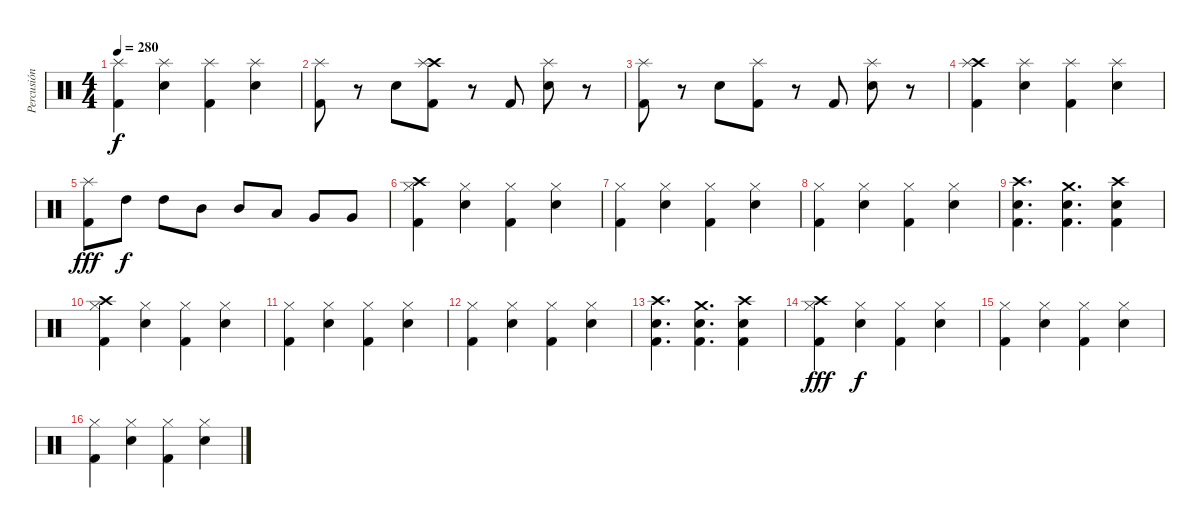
\track ("Percusión" "Percusión") {instrument percussion}
\staff {score}
\articulation defaults
\ts (4 4)
\tempo 280
\clef neutral
\ks c
("Splash (hit)" "Kick (hit) 2").4{dy f} ("Snare (hit) 2" "Splash (hit)").4 ("Splash (hit)" "Kick (hit) 2").4 ("Snare (hit) 2" "Splash (hit)").4 |
("Splash (hit)" "Kick (hit) 2").8 r.8 "Snare (hit) 2".8 ("Crash high (hit)" "Splash (hit)" "Kick (hit) 2").8 r.8 "Kick (hit) 2".8 ("Snare (hit) 2" "Splash (hit)").8 r.8 |
("Splash (hit)" "Kick (hit) 2").8 r.8 "Snare (hit) 2".8 ("Splash (hit)" "Kick (hit) 2").8 r.8 "Kick (hit) 2".8 ("Snare (hit) 2" "Splash (hit)").8 r.8 |
("Crash high (hit)" "Splash (hit)" "Kick (hit) 2").4 ("Snare (hit) 2" "Splash (hit)").4 ("Splash (hit)" "Kick (hit) 2").4 ("Snare (hit) 2" "Splash (hit)").4 |
("Splash (hit)" "Kick (hit) 2").8{dy fff} "High Tom (hit)".8{dy f} "High Tom (hit)".8 "Mid Tom (hit)".8 "Mid Tom (hit)".8 "Low Tom (hit)".8 "Very Low Tom (hit)".8 "Very Low Tom (hit)".8 |
("Crash high (hit)" "Hi-Hat (closed)" "Kick (hit) 2").4 ("Snare (hit) 2" "Hi-Hat (closed)").4 ("Hi-Hat (closed)" "Kick (hit) 2").4 ("Snare (hit) 2" "Hi-Hat (closed)").4 |
("Hi-Hat (closed)" "Kick (hit) 2").4 ("Snare (hit) 2" "Hi-Hat (closed)").4 ("Hi-Hat (closed)" "Kick (hit) 2").4 ("Snare (hit) 2" "Hi-Hat (closed)").4 |
("Hi-Hat (closed)" "Kick (hit) 2").4 ("Snare (hit) 2" "Hi-Hat (closed)").4 ("Hi-Hat (closed)" "Kick (hit) 2").4 ("Snare (hit) 2" "Hi-Hat (closed)").4 |
("Crash high (hit)" "Snare (hit) 2" "Kick (hit) 2").4{d} ("Crash medium (hit)" "Snare (hit) 2" "Kick (hit) 2").4{d} ("Crash high (hit)" "Snare (hit) 2" "Kick (hit) 2").4 |
("Crash high (hit)" "Hi-Hat (closed)" "Kick (hit) 2").4 ("Snare (hit) 2" "Hi-Hat (closed)").4 ("Hi-Hat (closed)" "Kick (hit) 2").4 ("Snare (hit) 2" "Hi-Hat (closed)").4 |
("Hi-Hat (closed)" "Kick (hit) 2").4 ("Snare (hit) 2" "Hi-Hat (closed)").4 ("Hi-Hat (closed)" "Kick (hit) 2").4 ("Snare (hit) 2" "Hi-Hat (closed)").4 |
("Hi-Hat (closed)" "Kick (hit) 2").4 ("Snare (hit) 2" "Hi-Hat (closed)").4 ("Hi-Hat (closed)" "Kick (hit) 2").4 ("Snare (hit) 2" "Hi-Hat (closed)").4 |
("Crash high (hit)" "Snare (hit) 2" "Kick (hit) 2").4{d} ("Crash medium (hit)" "Snare (hit) 2" "Kick (hit) 2").4{d} ("Crash high (hit)" "Snare (hit) 2" "Kick (hit) 2").4 |
("Crash high (hit)" "Hi-Hat (closed)" "Kick (hit) 2").4{dy fff} ("Snare (hit) 2" "Hi-Hat (closed)").4{dy f} ("Hi-Hat (closed)" "Kick (hit) 2").4 ("Snare (hit) 2" "Hi-Hat (closed)").4 |
("Hi-Hat (closed)" "Kick (hit) 2").4 ("Snare (hit) 2" "Hi-Hat (closed)").4 ("Hi-Hat (closed)" "Kick (hit) 2").4 ("Snare (hit) 2" "Hi-Hat (closed)").4 |
("Hi-Hat (closed)" "Kick (hit) 2").4 ("Snare (hit) 2" "Hi-Hat (closed)").4 ("Hi-Hat (closed)" "Kick (hit) 2").4 ("Snare (hit) 2" "Hi-Hat (closed)").4
